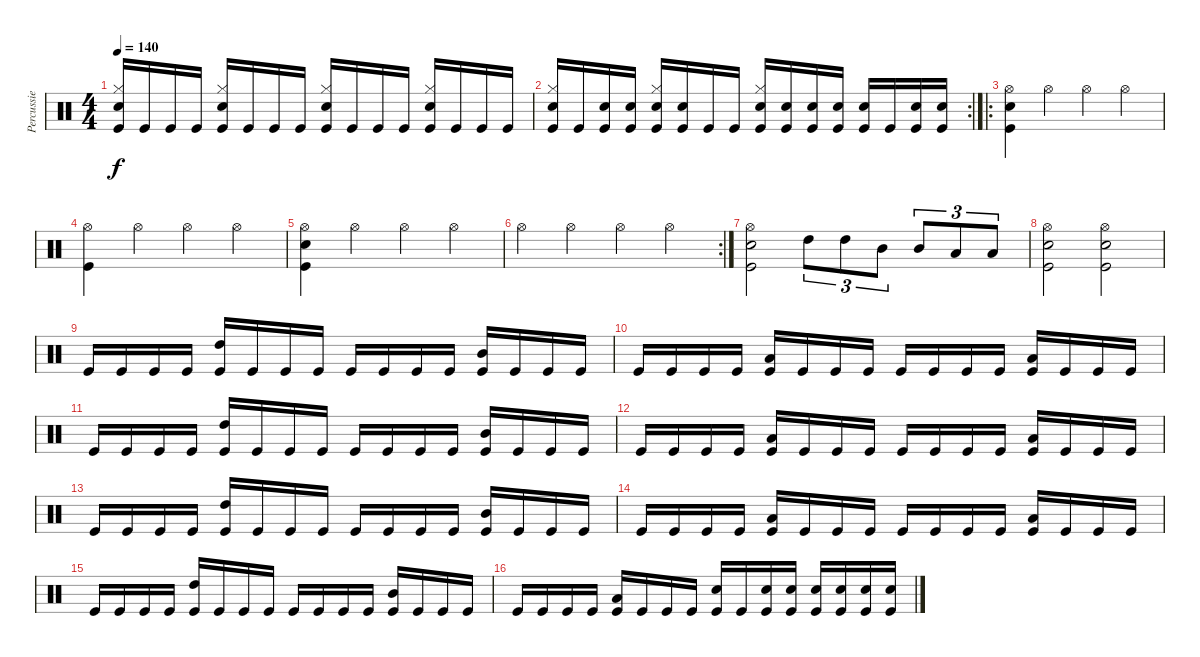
\track ("Percussie" "Percussie") {instrument percussion}
\staff {score}
\articulation defaults
\ts (4 4)
\tempo 140
\clef neutral
\ks c
("Snare (hit) 2" "Hi-Hat (closed)" "Kick (hit)").16{dy f} "Kick (hit)".16 "Kick (hit)".16 "Kick (hit)".16 ("Snare (hit) 2" "Hi-Hat (closed)" "Kick (hit)").16 "Kick (hit)".16 "Kick (hit)".16 "Kick (hit)".16 ("Snare (hit) 2" "Hi-Hat (closed)" "Kick (hit)").16 "Kick (hit)".16 "Kick (hit)".16 "Kick (hit)".16 ("Snare (hit) 2" "Hi-Hat (closed)" "Kick (hit)").16 "Kick (hit)".16 "Kick (hit)".16 "Kick (hit)".16 |
\rc 2
("Snare (hit) 2" "Hi-Hat (closed)" "Kick (hit)").16 "Kick (hit)".16 ("Snare (hit) 2" "Kick (hit)").16 ("Snare (hit) 2" "Kick (hit)").16 ("Snare (hit) 2" "Hi-Hat (closed)" "Kick (hit)").16 ("Snare (hit) 2" "Kick (hit)").16 "Kick (hit)".16 "Kick (hit)".16 ("Snare (hit) 2" "Hi-Hat (closed)" "Kick (hit)").16 ("Snare (hit) 2" "Kick (hit)").16 ("Snare (hit) 2" "Kick (hit)").16 ("Snare (hit) 2" "Kick (hit)").16 ("Snare (hit) 2" "Kick (hit)").16 "Kick (hit)".16 ("Snare (hit) 2" "Kick (hit)").16 ("Snare (hit) 2" "Kick (hit)").16 |
\ro
("Hi-Hat (open)" "Snare (hit) 2" "Kick (hit)").4 "Hi-Hat (open)".4 "Hi-Hat (open)".4 "Hi-Hat (open)".4 |
("Hi-Hat (open)" "Kick (hit)").4 "Hi-Hat (open)".4 "Hi-Hat (open)".4 "Hi-Hat (open)".4 |
("Hi-Hat (open)" "Snare (hit) 2" "Kick (hit)").4 "Hi-Hat (open)".4 "Hi-Hat (open)".4 "Hi-Hat (open)".4 |
\rc 2 "Hi-Hat (open)".4 "Hi-Hat (open)".4 "Hi-Hat (open)".4 "Hi-Hat (open)".4
|
("Hi-Hat (open)" "Snare (hit) 2" "Kick (hit)").2 "High Tom (hit)".8{tu (3 2)} "High Tom (hit)".8{tu (3 2)} "Mid Tom (hit)".8{tu (3 2)} "Mid Tom (hit)".8{tu (3 2)} "Low Tom (hit)".8{tu (3 2)} "Low Tom (hit)".8{tu (3 2)} |
("Hi-Hat (open)" "Snare (hit) 2" "Kick (hit)").2 ("Hi-Hat (open)" "Snare (hit) 2" "Kick (hit)").2 |
"Kick (hit)".16 "Kick (hit)".16 "Kick (hit)".16 "Kick (hit)".16 ("High Tom (hit)" "Kick (hit)").16 "Kick (hit)".16 "Kick (hit)".16 "Kick (hit)".16 "Kick (hit)".16 "Kick (hit)".16 "Kick (hit)".16 "Kick (hit)".16 ("Mid Tom (hit)" "Kick (hit)").16 "Kick (hit)".16 "Kick (hit)".16 "Kick (hit)".16 |
"Kick (hit)".16 "Kick (hit)".16 "Kick (hit)".16 "Kick (hit)".16 ("Low Tom (hit)" "Kick (hit)").16 "Kick (hit)".16 "Kick (hit)".16 "Kick (hit)".16 "Kick (hit)".16 "Kick (hit)".16 "Kick (hit)".16 "Kick (hit)".16 ("Low Tom (hit)" "Kick (hit)").16 "Kick (hit)".16 "Kick (hit)".16 "Kick (hit)".16 |
"Kick (hit)".16 "Kick (hit)".16 "Kick (hit)".16 "Kick (hit)".16 ("High Tom (hit)" "Kick (hit)").16 "Kick (hit)".16 "Kick (hit)".16 "Kick (hit)".16 "Kick (hit)".16 "Kick (hit)".16 "Kick (hit)".16 "Kick (hit)".16 ("Mid Tom (hit)" "Kick (hit)").16 "Kick (hit)".16 "Kick (hit)".16 "Kick (hit)".16 |
"Kick (hit)".16 "Kick (hit)".16 "Kick (hit)".16 "Kick (hit)".16 ("Low Tom (hit)" "Kick (hit)").16 "Kick (hit)".16 "Kick (hit)".16 "Kick (hit)".16 "Kick (hit)".16 "Kick (hit)".16 "Kick (hit)".16 "Kick (hit)".16 ("Low Tom (hit)" "Kick (hit)").16 "Kick (hit)".16 "Kick (hit)".16 "Kick (hit)".16 |
"Kick (hit)".16 "Kick (hit)".16 "Kick (hit)".16 "Kick (hit)".16 ("High Tom (hit)" "Kick (hit)").16 "Kick (hit)".16 "Kick (hit)".16 "Kick (hit)".16 "Kick (hit)".16 "Kick (hit)".16 "Kick (hit)".16 "Kick (hit)".16 ("Mid Tom (hit)" "Kick (hit)").16 "Kick (hit)".16 "Kick (hit)".16 "Kick (hit)".16 |
"Kick (hit)".16 "Kick (hit)".16 "Kick (hit)".16 "Kick (hit)".16 ("Low Tom (hit)" "Kick (hit)").16 "Kick (hit)".16 "Kick (hit)".16 "Kick (hit)".16 "Kick (hit)".16 "Kick (hit)".16 "Kick (hit)".16 "Kick (hit)".16 ("Low Tom (hit)" "Kick (hit)").16 "Kick (hit)".16 "Kick (hit)".16 "Kick (hit)".16 |
"Kick (hit)".16 "Kick (hit)".16 "Kick (hit)".16 "Kick (hit)".16 ("High Tom (hit)" "Kick (hit)").16 "Kick (hit)".16 "Kick (hit)".16 "Kick (hit)".16 "Kick (hit)".16 "Kick (hit)".16 "Kick (hit)".16 "Kick (hit)".16 ("Mid Tom (hit)" "Kick (hit)").16 "Kick (hit)".16 "Kick (hit)".16 "Kick (hit)".16 |
"Kick (hit)".16 "Kick (hit)".16 "Kick (hit)".16 "Kick (hit)".16 ("Low Tom (hit)" "Kick (hit)").16 "Kick (hit)".16 "Kick (hit)".16 "Kick (hit)".16 ("Snare (hit) 2" "Kick (hit)").16 "Kick (hit)".16 ("Snare (hit) 2" "Kick (hit)").16 ("Snare (hit) 2" "Kick (hit)").16 ("Snare (hit) 2" "Kick (hit)").16 ("Snare (hit) 2" "Kick (hit)").16 ("Snare (hit) 2" "Kick (hit)").16 ("Snare (hit) 2" "Kick (hit)").16
